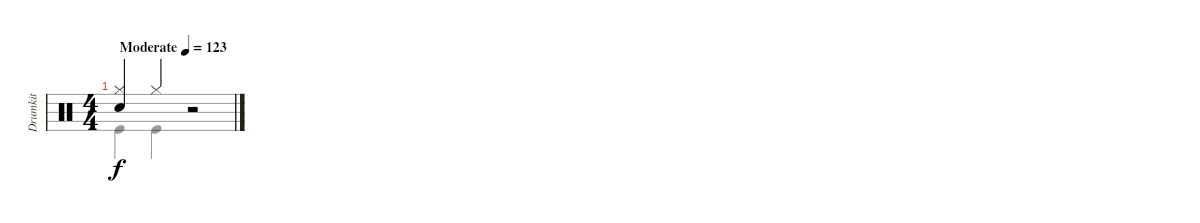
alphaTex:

\track ("Drumkit" "Drumkit") {instrument percussion}
\staff {score}
\articulation defaults
\voice
\ts (4 4)
\tempo (123 "Moderate")
\clef neutral
\ks c
("Snare (hit) 2" "Hi-Hat (closed)").4{dy f} "Hi-Hat (closed)".4 r.2 |
\voice
\clef neutral
\ottava regular
\simile none
\ks c "Kick (hit)".4{dy f} "Kick (hit)".4
r.2 |
